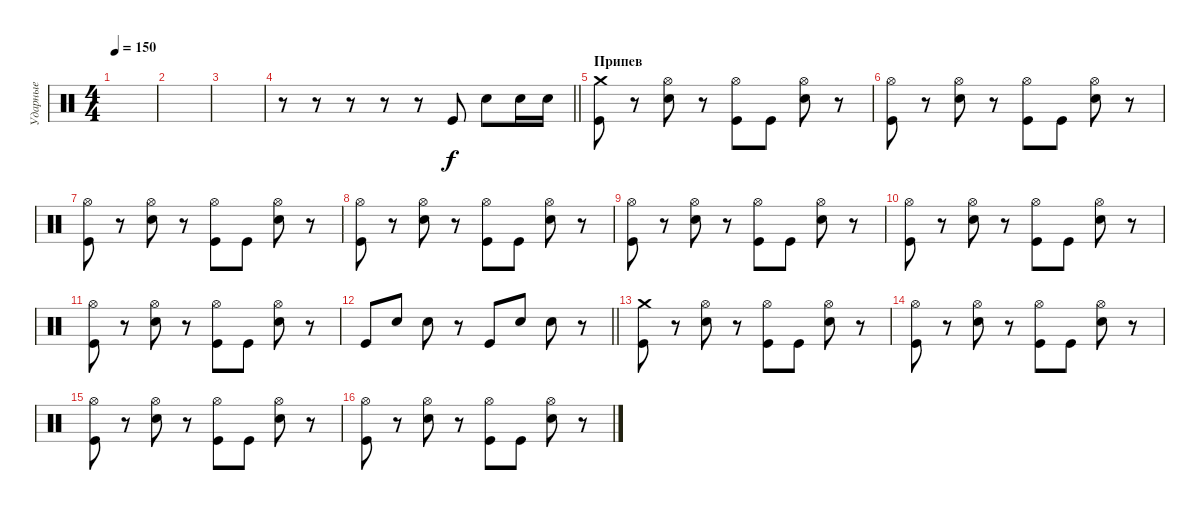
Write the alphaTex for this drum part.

\track ("Ударные" "Ударные") {instrument percussion}
\staff {score}
\articulation defaults
\ts (4 4)
\tempo 150
\clef neutral
\ks c
|
|
|
\barLineRight lightlight
r.8 r.8 r.8 r.8 r.8 "Kick (hit)".8 "Electric Snare (hit)".8 "Electric Snare (hit)".16 "Electric Snare (hit)".16 |
\section ("" "Припев")
("Crash medium (hit)" "Kick (hit)").8 r.8 ("Hi-Hat (open)" "Electric Snare (hit)").8 r.8 ("Hi-Hat (open)" "Kick (hit)").8 "Kick (hit)".8 ("Hi-Hat (open)" "Electric Snare (hit)").8 r.8 |
("Hi-Hat (open)" "Kick (hit)").8 r.8 ("Hi-Hat (open)" "Electric Snare (hit)").8 r.8 ("Hi-Hat (open)" "Kick (hit)").8 "Kick (hit)".8 ("Hi-Hat (open)" "Electric Snare (hit)").8 r.8 |
("Hi-Hat (open)" "Kick (hit)").8 r.8 ("Hi-Hat (open)" "Electric Snare (hit)").8 r.8 ("Hi-Hat (open)" "Kick (hit)").8 "Kick (hit)".8 ("Hi-Hat (open)" "Electric Snare (hit)").8 r.8 |
("Hi-Hat (open)" "Kick (hit)").8 r.8 ("Hi-Hat (open)" "Electric Snare (hit)").8 r.8 ("Hi-Hat (open)" "Kick (hit)").8 "Kick (hit)".8 ("Hi-Hat (open)" "Electric Snare (hit)").8 r.8 |
("Hi-Hat (open)" "Kick (hit)").8 r.8 ("Hi-Hat (open)" "Electric Snare (hit)").8 r.8 ("Hi-Hat (open)" "Kick (hit)").8 "Kick (hit)".8 ("Hi-Hat (open)" "Electric Snare (hit)").8 r.8 |
("Hi-Hat (open)" "Kick (hit)").8 r.8 ("Hi-Hat (open)" "Electric Snare (hit)").8 r.8 ("Hi-Hat (open)" "Kick (hit)").8 "Kick (hit)".8 ("Hi-Hat (open)" "Electric Snare (hit)").8 r.8 |
("Hi-Hat (open)" "Kick (hit)").8 r.8 ("Hi-Hat (open)" "Electric Snare (hit)").8 r.8 ("Hi-Hat (open)" "Kick (hit)").8 "Kick (hit)".8 ("Hi-Hat (open)" "Electric Snare (hit)").8 r.8 |
\barLineRight lightlight "Kick (hit)".8 "Electric Snare (hit)".8 "Electric Snare (hit)".8
r.8 "Kick (hit)".8 "Electric Snare (hit)".8 "Electric Snare (hit)".8 r.8 |
\section ("" " ")
("Crash medium (hit)" "Kick (hit)").8 r.8 ("Hi-Hat (open)" "Electric Snare (hit)").8 r.8 ("Hi-Hat (open)" "Kick (hit)").8 "Kick (hit)".8 ("Hi-Hat (open)" "Electric Snare (hit)").8 r.8 |
("Hi-Hat (open)" "Kick (hit)").8 r.8 ("Hi-Hat (open)" "Electric Snare (hit)").8 r.8 ("Hi-Hat (open)" "Kick (hit)").8 "Kick (hit)".8 ("Hi-Hat (open)" "Electric Snare (hit)").8 r.8 |
("Hi-Hat (open)" "Kick (hit)").8 r.8 ("Hi-Hat (open)" "Electric Snare (hit)").8 r.8 ("Hi-Hat (open)" "Kick (hit)").8 "Kick (hit)".8 ("Hi-Hat (open)" "Electric Snare (hit)").8 r.8 |
("Hi-Hat (open)" "Kick (hit)").8 r.8 ("Hi-Hat (open)" "Electric Snare (hit)").8 r.8 ("Hi-Hat (open)" "Kick (hit)").8 "Kick (hit)".8 ("Hi-Hat (open)" "Electric Snare (hit)").8 r.8
